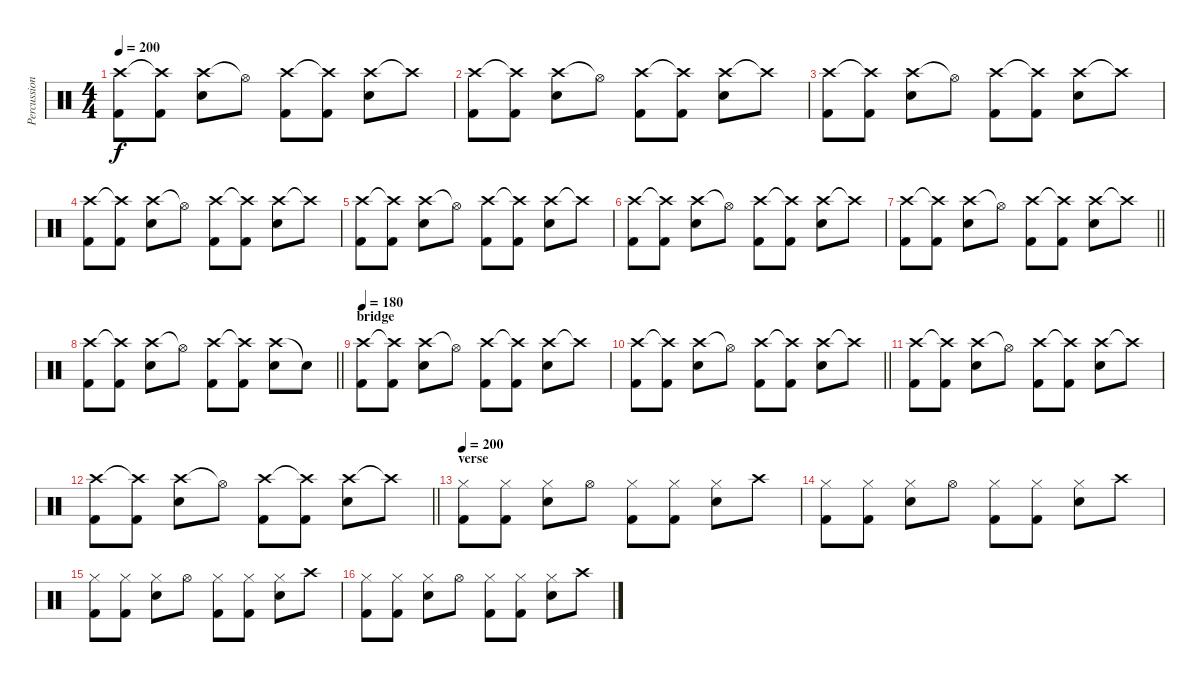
\track ("Percussion" "Percussion") {instrument percussion}
\staff {score}
\articulation defaults
\ts (4 4)
\tempo 200
\clef neutral
\ks c
("Crash high (hit)" "Kick (hit) 2").8{dy f} ("Crash high (hit)"{t} "Kick (hit) 2").8 ("Crash high (hit)" "Snare (hit) 2").8 "Hi-Hat (open)"{t}.8 ("Crash high (hit)" "Kick (hit) 2").8 ("Crash high (hit)"{t} "Kick (hit) 2").8 ("Crash high (hit)" "Snare (hit) 2").8 "Crash high (hit)"{t}.8 |
("Crash high (hit)" "Kick (hit) 2").8 ("Crash high (hit)"{t} "Kick (hit) 2").8 ("Crash high (hit)" "Snare (hit) 2").8 "Hi-Hat (open)"{t}.8 ("Crash high (hit)" "Kick (hit) 2").8 ("Crash high (hit)"{t} "Kick (hit) 2").8 ("Crash high (hit)" "Snare (hit) 2").8 "Crash high (hit)"{t}.8 |
("Crash high (hit)" "Kick (hit) 2").8 ("Crash high (hit)"{t} "Kick (hit) 2").8 ("Crash high (hit)" "Snare (hit) 2").8 "Hi-Hat (open)"{t}.8 ("Crash high (hit)" "Kick (hit) 2").8 ("Crash high (hit)"{t} "Kick (hit) 2").8 ("Crash high (hit)" "Snare (hit) 2").8 "Crash high (hit)"{t}.8 |
("Crash high (hit)" "Kick (hit) 2").8 ("Crash high (hit)"{t} "Kick (hit) 2").8 ("Crash high (hit)" "Snare (hit) 2").8 "Hi-Hat (open)"{t}.8 ("Crash high (hit)" "Kick (hit) 2").8 ("Crash high (hit)"{t} "Kick (hit) 2").8 ("Crash high (hit)" "Snare (hit) 2").8 "Crash high (hit)"{t}.8 |
("Crash high (hit)" "Kick (hit) 2").8 ("Crash high (hit)"{t} "Kick (hit) 2").8 ("Crash high (hit)" "Snare (hit) 2").8 "Hi-Hat (open)"{t}.8 ("Crash high (hit)" "Kick (hit) 2").8 ("Crash high (hit)"{t} "Kick (hit) 2").8 ("Crash high (hit)" "Snare (hit) 2").8 "Crash high (hit)"{t}.8 |
("Crash high (hit)" "Kick (hit) 2").8 ("Crash high (hit)"{t} "Kick (hit) 2").8 ("Crash high (hit)" "Snare (hit) 2").8 "Hi-Hat (open)"{t}.8 ("Crash high (hit)" "Kick (hit) 2").8 ("Crash high (hit)"{t} "Kick (hit) 2").8 ("Crash high (hit)" "Snare (hit) 2").8 "Crash high (hit)"{t}.8 |
\barLineRight lightlight
("Crash high (hit)" "Kick (hit) 2").8 ("Crash high (hit)"{t} "Kick (hit) 2").8 ("Crash high (hit)" "Snare (hit) 2").8 "Hi-Hat (open)"{t}.8 ("Crash high (hit)" "Kick (hit) 2").8 ("Crash high (hit)"{t} "Kick (hit) 2").8 ("Crash high (hit)" "Snare (hit) 2").8 "Crash high (hit)"{t}.8 |
\barLineRight lightlight
("Crash high (hit)" "Kick (hit) 2").8 ("Crash high (hit)"{t} "Kick (hit) 2").8 ("Crash high (hit)" "Snare (hit) 2").8 "Hi-Hat (open)"{t}.8 ("Crash high (hit)" "Kick (hit) 2").8 ("Crash high (hit)"{t} "Kick (hit) 2").8 ("Crash high (hit)" "Snare (hit) 2").8 "Snare (hit)"{t}.8 |
\section ("" "bridge")
\tempo 180
("Crash high (hit)" "Kick (hit) 2").8 ("Crash high (hit)"{t} "Kick (hit) 2").8 ("Crash high (hit)" "Snare (hit) 2").8 "Hi-Hat (open)"{t}.8 ("Crash high (hit)" "Kick (hit) 2").8 ("Crash high (hit)"{t} "Kick (hit) 2").8 ("Crash high (hit)" "Snare (hit) 2").8 "Crash high (hit)"{t}.8 |
\barLineRight lightlight
("Crash high (hit)" "Kick (hit) 2").8 ("Crash high (hit)"{t} "Kick (hit) 2").8 ("Crash high (hit)" "Snare (hit) 2").8 "Hi-Hat (open)"{t}.8 ("Crash high (hit)" "Kick (hit) 2").8 ("Crash high (hit)"{t} "Kick (hit) 2").8 ("Crash high (hit)" "Snare (hit) 2").8 "Crash high (hit)"{t}.8 |
("Crash high (hit)" "Kick (hit) 2").8 ("Crash high (hit)"{t} "Kick (hit) 2").8 ("Crash high (hit)" "Snare (hit) 2").8 "Hi-Hat (open)"{t}.8 ("Crash high (hit)" "Kick (hit) 2").8 ("Crash high (hit)"{t} "Kick (hit) 2").8 ("Crash high (hit)" "Snare (hit) 2").8 "Crash high (hit)"{t}.8 |
\barLineRight lightlight
("Crash high (hit)" "Kick (hit) 2").8 ("Crash high (hit)"{t} "Kick (hit) 2").8 ("Crash high (hit)" "Snare (hit) 2").8 "Hi-Hat (open)"{t}.8 ("Crash high (hit)" "Kick (hit) 2").8 ("Crash high (hit)"{t} "Kick (hit) 2").8 ("Crash high (hit)" "Snare (hit) 2").8 "Crash high (hit)"{t}.8 |
\section ("" "verse")
\tempo 200
("Hi-Hat (closed)" "Kick (hit) 2").8 ("Hi-Hat (closed)" "Kick (hit) 2").8 ("Hi-Hat (closed)" "Snare (hit) 2").8 "Hi-Hat (open)".8 ("Hi-Hat (closed)" "Kick (hit) 2").8 ("Hi-Hat (closed)" "Kick (hit) 2").8 ("Hi-Hat (closed)" "Snare (hit) 2").8 "Crash high (hit)".8 |
("Hi-Hat (closed)" "Kick (hit) 2").8 ("Hi-Hat (closed)" "Kick (hit) 2").8 ("Hi-Hat (closed)" "Snare (hit) 2").8 "Hi-Hat (open)".8 ("Hi-Hat (closed)" "Kick (hit) 2").8 ("Hi-Hat (closed)" "Kick (hit) 2").8 ("Hi-Hat (closed)" "Snare (hit) 2").8 "Crash high (hit)".8 |
("Hi-Hat (closed)" "Kick (hit) 2").8 ("Hi-Hat (closed)" "Kick (hit) 2").8 ("Hi-Hat (closed)" "Snare (hit) 2").8 "Hi-Hat (open)".8 ("Hi-Hat (closed)" "Kick (hit) 2").8 ("Hi-Hat (closed)" "Kick (hit) 2").8 ("Hi-Hat (closed)" "Snare (hit) 2").8 "Crash high (hit)".8 |
("Hi-Hat (closed)" "Kick (hit) 2").8 ("Hi-Hat (closed)" "Kick (hit) 2").8 ("Hi-Hat (closed)" "Snare (hit) 2").8 "Hi-Hat (open)".8 ("Hi-Hat (closed)" "Kick (hit) 2").8 ("Hi-Hat (closed)" "Kick (hit) 2").8 ("Hi-Hat (closed)" "Snare (hit) 2").8 "Crash high (hit)".8
